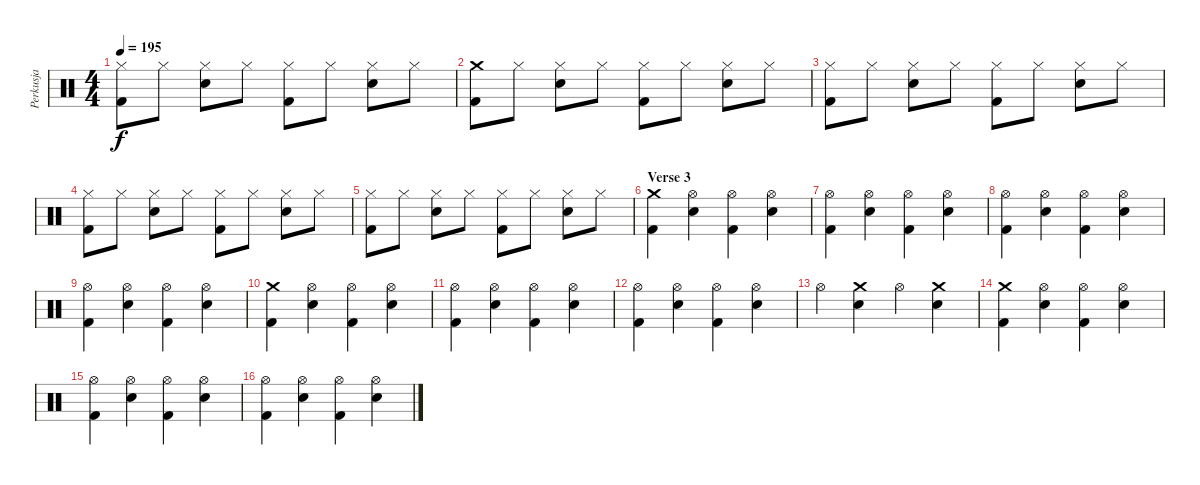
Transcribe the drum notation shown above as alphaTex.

\track ("Perkusja" "Perkusja") {instrument percussion}
\staff {score}
\articulation defaults
\ts (4 4)
\tempo 195
\clef neutral
\ks c
("Hi-Hat (closed)" "Kick (hit) 2").8{dy f} "Hi-Hat (closed)".8 ("Hi-Hat (closed)" "Snare (hit) 2").8 "Hi-Hat (closed)".8 ("Hi-Hat (closed)" "Kick (hit) 2").8 "Hi-Hat (closed)".8 ("Hi-Hat (closed)" "Snare (hit) 2").8 "Hi-Hat (closed)".8 |
("Crash medium (hit)" "Kick (hit) 2").8 "Hi-Hat (closed)".8 ("Hi-Hat (closed)" "Snare (hit) 2").8 "Hi-Hat (closed)".8 ("Hi-Hat (closed)" "Kick (hit) 2").8 "Hi-Hat (closed)".8 ("Hi-Hat (closed)" "Snare (hit) 2").8 "Hi-Hat (closed)".8 |
("Hi-Hat (closed)" "Kick (hit) 2").8 "Hi-Hat (closed)".8 ("Hi-Hat (closed)" "Snare (hit) 2").8 "Hi-Hat (closed)".8 ("Hi-Hat (closed)" "Kick (hit) 2").8 "Hi-Hat (closed)".8 ("Hi-Hat (closed)" "Snare (hit) 2").8 "Hi-Hat (closed)".8 |
("Hi-Hat (closed)" "Kick (hit) 2").8 "Hi-Hat (closed)".8 ("Hi-Hat (closed)" "Snare (hit) 2").8 "Hi-Hat (closed)".8 ("Hi-Hat (closed)" "Kick (hit) 2").8 "Hi-Hat (closed)".8 ("Hi-Hat (closed)" "Snare (hit) 2").8 "Hi-Hat (closed)".8 |
("Hi-Hat (closed)" "Kick (hit) 2").8 "Hi-Hat (closed)".8 ("Hi-Hat (closed)" "Snare (hit) 2").8 "Hi-Hat (closed)".8 ("Hi-Hat (closed)" "Kick (hit) 2").8 "Hi-Hat (closed)".8 ("Hi-Hat (closed)" "Snare (hit) 2").8 "Hi-Hat (closed)".8 |
\section ("" "Verse 3")
("Crash medium (hit)" "Kick (hit) 2").4 ("Hi-Hat (open)" "Snare (hit) 2").4 ("Hi-Hat (open)" "Kick (hit) 2").4 ("Hi-Hat (open)" "Snare (hit) 2").4 |
("Hi-Hat (open)" "Kick (hit) 2").4 ("Hi-Hat (open)" "Snare (hit) 2").4 ("Hi-Hat (open)" "Kick (hit) 2").4 ("Hi-Hat (open)" "Snare (hit) 2").4 |
("Hi-Hat (open)" "Kick (hit) 2").4 ("Hi-Hat (open)" "Snare (hit) 2").4 ("Hi-Hat (open)" "Kick (hit) 2").4 ("Hi-Hat (open)" "Snare (hit) 2").4 |
("Hi-Hat (open)" "Kick (hit) 2").4 ("Hi-Hat (open)" "Snare (hit) 2").4 ("Hi-Hat (open)" "Kick (hit) 2").4 ("Hi-Hat (open)" "Snare (hit) 2").4 |
("Crash medium (hit)" "Kick (hit) 2").4 ("Hi-Hat (open)" "Snare (hit) 2").4 ("Hi-Hat (open)" "Kick (hit) 2").4 ("Hi-Hat (open)" "Snare (hit) 2").4 |
("Hi-Hat (open)" "Kick (hit) 2").4 ("Hi-Hat (open)" "Snare (hit) 2").4 ("Hi-Hat (open)" "Kick (hit) 2").4 ("Hi-Hat (open)" "Snare (hit) 2").4 |
("Hi-Hat (open)" "Kick (hit) 2").4 ("Hi-Hat (open)" "Snare (hit) 2").4 ("Hi-Hat (open)" "Kick (hit) 2").4 ("Hi-Hat (open)" "Snare (hit) 2").4 |
"Hi-Hat (open)".4 ("Crash medium (hit)" "Snare (hit) 2").4 "Hi-Hat (open)".4 ("Crash medium (hit)" "Snare (hit) 2").4 |
("Crash medium (hit)" "Kick (hit) 2").4 ("Hi-Hat (open)" "Snare (hit) 2").4 ("Hi-Hat (open)" "Kick (hit) 2").4 ("Hi-Hat (open)" "Snare (hit) 2").4 |
("Hi-Hat (open)" "Kick (hit) 2").4 ("Hi-Hat (open)" "Snare (hit) 2").4 ("Hi-Hat (open)" "Kick (hit) 2").4 ("Hi-Hat (open)" "Snare (hit) 2").4 |
("Hi-Hat (open)" "Kick (hit) 2").4 ("Hi-Hat (open)" "Snare (hit) 2").4 ("Hi-Hat (open)" "Kick (hit) 2").4 ("Hi-Hat (open)" "Snare (hit) 2").4
